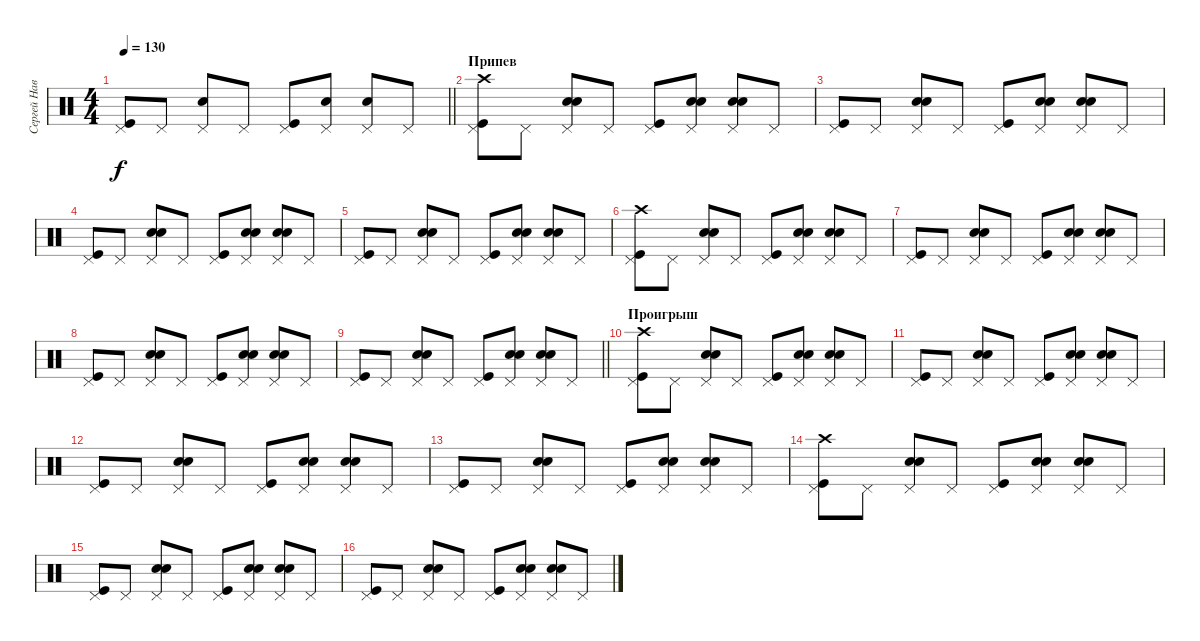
\track ("Сергей Наветный (ударные)" "Сергей Нав") {instrument percussion}
\staff {score}
\articulation defaults
\ts (4 4)
\tempo 130
\clef neutral
\barLineRight lightlight
\ks c
("Pedal Hi-Hat (hit)" "Kick (hit)").8{dy f} "Pedal Hi-Hat (hit)".8 ("Pedal Hi-Hat (hit)" "Snare (hit) 2").8 "Pedal Hi-Hat (hit)".8 ("Kick (hit)" "Pedal Hi-Hat (hit)").8 ("Snare (hit) 2" "Pedal Hi-Hat (hit)").8 ("Snare (hit) 2" "Pedal Hi-Hat (hit)").8 "Pedal Hi-Hat (hit)".8 |
\section ("" "Припев")
("Crash high (hit)" "Kick (hit)" "Pedal Hi-Hat (hit)").8 "Pedal Hi-Hat (hit)".8 ("Hand Clap (hit)" "Snare (hit) 2" "Pedal Hi-Hat (hit)").8 "Pedal Hi-Hat (hit)".8 ("Kick (hit)" "Pedal Hi-Hat (hit)").8 ("Hand Clap (hit)" "Snare (hit) 2" "Pedal Hi-Hat (hit)").8 ("Hand Clap (hit)" "Snare (hit) 2" "Pedal Hi-Hat (hit)").8 "Pedal Hi-Hat (hit)".8 |
("Kick (hit)" "Pedal Hi-Hat (hit)").8 "Pedal Hi-Hat (hit)".8 ("Hand Clap (hit)" "Snare (hit) 2" "Pedal Hi-Hat (hit)").8 "Pedal Hi-Hat (hit)".8 ("Kick (hit)" "Pedal Hi-Hat (hit)").8 ("Hand Clap (hit)" "Snare (hit) 2" "Pedal Hi-Hat (hit)").8 ("Hand Clap (hit)" "Snare (hit) 2" "Pedal Hi-Hat (hit)").8 "Pedal Hi-Hat (hit)".8 |
("Kick (hit)" "Pedal Hi-Hat (hit)").8 "Pedal Hi-Hat (hit)".8 ("Hand Clap (hit)" "Snare (hit) 2" "Pedal Hi-Hat (hit)").8 "Pedal Hi-Hat (hit)".8 ("Kick (hit)" "Pedal Hi-Hat (hit)").8 ("Hand Clap (hit)" "Snare (hit) 2" "Pedal Hi-Hat (hit)").8 ("Hand Clap (hit)" "Snare (hit) 2" "Pedal Hi-Hat (hit)").8 "Pedal Hi-Hat (hit)".8 |
("Kick (hit)" "Pedal Hi-Hat (hit)").8 "Pedal Hi-Hat (hit)".8 ("Hand Clap (hit)" "Snare (hit) 2" "Pedal Hi-Hat (hit)").8 "Pedal Hi-Hat (hit)".8 ("Kick (hit)" "Pedal Hi-Hat (hit)").8 ("Hand Clap (hit)" "Snare (hit) 2" "Pedal Hi-Hat (hit)").8 ("Hand Clap (hit)" "Snare (hit) 2" "Pedal Hi-Hat (hit)").8 "Pedal Hi-Hat (hit)".8 |
("Crash high (hit)" "Kick (hit)" "Pedal Hi-Hat (hit)").8 "Pedal Hi-Hat (hit)".8 ("Hand Clap (hit)" "Snare (hit) 2" "Pedal Hi-Hat (hit)").8 "Pedal Hi-Hat (hit)".8 ("Kick (hit)" "Pedal Hi-Hat (hit)").8 ("Hand Clap (hit)" "Snare (hit) 2" "Pedal Hi-Hat (hit)").8 ("Hand Clap (hit)" "Snare (hit) 2" "Pedal Hi-Hat (hit)").8 "Pedal Hi-Hat (hit)".8 |
("Kick (hit)" "Pedal Hi-Hat (hit)").8 "Pedal Hi-Hat (hit)".8 ("Hand Clap (hit)" "Snare (hit) 2" "Pedal Hi-Hat (hit)").8 "Pedal Hi-Hat (hit)".8 ("Kick (hit)" "Pedal Hi-Hat (hit)").8 ("Hand Clap (hit)" "Snare (hit) 2" "Pedal Hi-Hat (hit)").8 ("Hand Clap (hit)" "Snare (hit) 2" "Pedal Hi-Hat (hit)").8 "Pedal Hi-Hat (hit)".8 |
("Kick (hit)" "Pedal Hi-Hat (hit)").8 "Pedal Hi-Hat (hit)".8 ("Hand Clap (hit)" "Snare (hit) 2" "Pedal Hi-Hat (hit)").8 "Pedal Hi-Hat (hit)".8 ("Kick (hit)" "Pedal Hi-Hat (hit)").8 ("Hand Clap (hit)" "Snare (hit) 2" "Pedal Hi-Hat (hit)").8 ("Hand Clap (hit)" "Snare (hit) 2" "Pedal Hi-Hat (hit)").8 "Pedal Hi-Hat (hit)".8 |
\barLineRight lightlight
("Kick (hit)" "Pedal Hi-Hat (hit)").8 "Pedal Hi-Hat (hit)".8 ("Hand Clap (hit)" "Snare (hit) 2" "Pedal Hi-Hat (hit)").8 "Pedal Hi-Hat (hit)".8 ("Kick (hit)" "Pedal Hi-Hat (hit)").8 ("Hand Clap (hit)" "Snare (hit) 2" "Pedal Hi-Hat (hit)").8 ("Hand Clap (hit)" "Snare (hit) 2" "Pedal Hi-Hat (hit)").8 "Pedal Hi-Hat (hit)".8 |
\section ("" "Проигрыш")
("Crash high (hit)" "Kick (hit)" "Pedal Hi-Hat (hit)").8 "Pedal Hi-Hat (hit)".8 ("Hand Clap (hit)" "Snare (hit) 2" "Pedal Hi-Hat (hit)").8 "Pedal Hi-Hat (hit)".8 ("Kick (hit)" "Pedal Hi-Hat (hit)").8 ("Hand Clap (hit)" "Snare (hit) 2" "Pedal Hi-Hat (hit)").8 ("Hand Clap (hit)" "Snare (hit) 2" "Pedal Hi-Hat (hit)").8 "Pedal Hi-Hat (hit)".8 |
("Kick (hit)" "Pedal Hi-Hat (hit)").8 "Pedal Hi-Hat (hit)".8 ("Hand Clap (hit)" "Snare (hit) 2" "Pedal Hi-Hat (hit)").8 "Pedal Hi-Hat (hit)".8 ("Kick (hit)" "Pedal Hi-Hat (hit)").8 ("Hand Clap (hit)" "Snare (hit) 2" "Pedal Hi-Hat (hit)").8 ("Hand Clap (hit)" "Snare (hit) 2" "Pedal Hi-Hat (hit)").8 "Pedal Hi-Hat (hit)".8 |
("Kick (hit)" "Pedal Hi-Hat (hit)").8 "Pedal Hi-Hat (hit)".8 ("Hand Clap (hit)" "Snare (hit) 2" "Pedal Hi-Hat (hit)").8 "Pedal Hi-Hat (hit)".8 ("Kick (hit)" "Pedal Hi-Hat (hit)").8 ("Hand Clap (hit)" "Snare (hit) 2" "Pedal Hi-Hat (hit)").8 ("Hand Clap (hit)" "Snare (hit) 2" "Pedal Hi-Hat (hit)").8 "Pedal Hi-Hat (hit)".8 |
("Kick (hit)" "Pedal Hi-Hat (hit)").8 "Pedal Hi-Hat (hit)".8 ("Hand Clap (hit)" "Snare (hit) 2" "Pedal Hi-Hat (hit)").8 "Pedal Hi-Hat (hit)".8 ("Kick (hit)" "Pedal Hi-Hat (hit)").8 ("Hand Clap (hit)" "Snare (hit) 2" "Pedal Hi-Hat (hit)").8 ("Hand Clap (hit)" "Snare (hit) 2" "Pedal Hi-Hat (hit)").8 "Pedal Hi-Hat (hit)".8 |
("Crash high (hit)" "Kick (hit)" "Pedal Hi-Hat (hit)").8 "Pedal Hi-Hat (hit)".8 ("Hand Clap (hit)" "Snare (hit) 2" "Pedal Hi-Hat (hit)").8 "Pedal Hi-Hat (hit)".8 ("Kick (hit)" "Pedal Hi-Hat (hit)").8 ("Hand Clap (hit)" "Snare (hit) 2" "Pedal Hi-Hat (hit)").8 ("Hand Clap (hit)" "Snare (hit) 2" "Pedal Hi-Hat (hit)").8 "Pedal Hi-Hat (hit)".8 |
("Kick (hit)" "Pedal Hi-Hat (hit)").8 "Pedal Hi-Hat (hit)".8 ("Hand Clap (hit)" "Snare (hit) 2" "Pedal Hi-Hat (hit)").8 "Pedal Hi-Hat (hit)".8 ("Kick (hit)" "Pedal Hi-Hat (hit)").8 ("Hand Clap (hit)" "Snare (hit) 2" "Pedal Hi-Hat (hit)").8 ("Hand Clap (hit)" "Snare (hit) 2" "Pedal Hi-Hat (hit)").8 "Pedal Hi-Hat (hit)".8 |
("Kick (hit)" "Pedal Hi-Hat (hit)").8 "Pedal Hi-Hat (hit)".8 ("Hand Clap (hit)" "Snare (hit) 2" "Pedal Hi-Hat (hit)").8 "Pedal Hi-Hat (hit)".8 ("Kick (hit)" "Pedal Hi-Hat (hit)").8 ("Hand Clap (hit)" "Snare (hit) 2" "Pedal Hi-Hat (hit)").8 ("Hand Clap (hit)" "Snare (hit) 2" "Pedal Hi-Hat (hit)").8 "Pedal Hi-Hat (hit)".8
